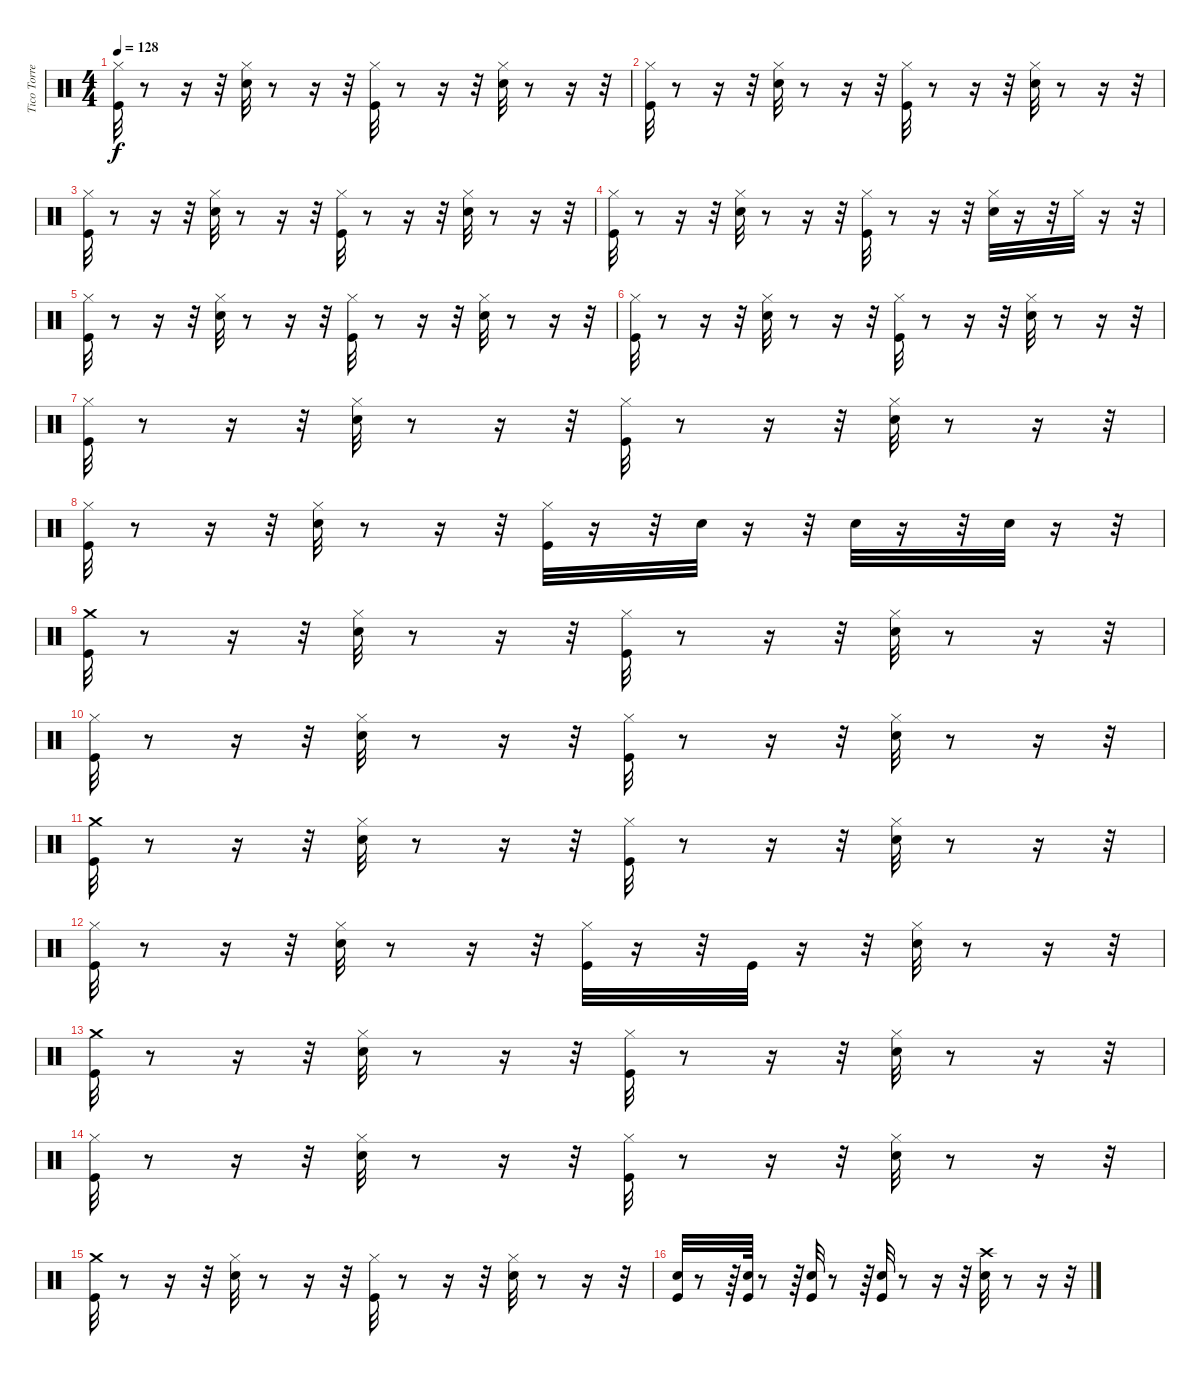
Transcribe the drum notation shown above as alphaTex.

\track ("Tico Torres" "Tico Torre") {instrument percussion}
\staff {score}
\articulation defaults
\ts (4 4)
\tempo 128
\clef neutral
\ks c
("Kick (hit)" "Hi-Hat (closed)").32{dy f} r.8 r.16 r.32 ("Snare (hit) 2" "Hi-Hat (closed)").32 r.8 r.16 r.32 ("Kick (hit)" "Hi-Hat (closed)").32 r.8 r.16 r.32 ("Snare (hit) 2" "Hi-Hat (closed)").32 r.8 r.16 r.32 |
("Kick (hit)" "Hi-Hat (closed)").32 r.8 r.16 r.32 ("Snare (hit) 2" "Hi-Hat (closed)").32 r.8 r.16 r.32 ("Kick (hit)" "Hi-Hat (closed)").32 r.8 r.16 r.32 ("Snare (hit) 2" "Hi-Hat (closed)").32 r.8 r.16 r.32 |
("Kick (hit)" "Hi-Hat (closed)").32 r.8 r.16 r.32 ("Snare (hit) 2" "Hi-Hat (closed)").32 r.8 r.16 r.32 ("Kick (hit)" "Hi-Hat (closed)").32 r.8 r.16 r.32 ("Snare (hit) 2" "Hi-Hat (closed)").32 r.8 r.16 r.32 |
("Kick (hit)" "Hi-Hat (closed)").32 r.8 r.16 r.32 ("Snare (hit) 2" "Hi-Hat (closed)").32 r.8 r.16 r.32 ("Kick (hit)" "Hi-Hat (closed)").32 r.8 r.16 r.32 ("Snare (hit) 2" "Hi-Hat (closed)").32 r.16 r.32 "Hi-Hat (closed)".32 r.16 r.32 |
("Kick (hit)" "Hi-Hat (closed)").32 r.8 r.16 r.32 ("Snare (hit) 2" "Hi-Hat (closed)").32 r.8 r.16 r.32 ("Kick (hit)" "Hi-Hat (closed)").32 r.8 r.16 r.32 ("Snare (hit) 2" "Hi-Hat (closed)").32 r.8 r.16 r.32 |
("Kick (hit)" "Hi-Hat (closed)").32 r.8 r.16 r.32 ("Snare (hit) 2" "Hi-Hat (closed)").32 r.8 r.16 r.32 ("Kick (hit)" "Hi-Hat (closed)").32 r.8 r.16 r.32 ("Snare (hit) 2" "Hi-Hat (closed)").32 r.8 r.16 r.32 |
("Kick (hit)" "Hi-Hat (closed)").32 r.8 r.16 r.32 ("Snare (hit) 2" "Hi-Hat (closed)").32 r.8 r.16 r.32 ("Kick (hit)" "Hi-Hat (closed)").32 r.8 r.16 r.32 ("Snare (hit) 2" "Hi-Hat (closed)").32 r.8 r.16 r.32 |
("Hi-Hat (closed)" "Kick (hit)").32 r.8 r.16 r.32 ("Hi-Hat (closed)" "Snare (hit) 2").32 r.8 r.16 r.32 ("Hi-Hat (closed)" "Kick (hit)").32 r.16 r.32 "Snare (hit) 2".32 r.16 r.32 "Snare (hit) 2".32 r.16 r.32 "Snare (hit) 2".32 r.16 r.32 |
("Kick (hit)" "Crash medium (hit)").32 r.8 r.16 r.32 ("Hi-Hat (closed)" "Snare (hit) 2").32 r.8 r.16 r.32 ("Kick (hit)" "Hi-Hat (closed)").32 r.8 r.16 r.32 ("Snare (hit) 2" "Hi-Hat (closed)").32 r.8 r.16 r.32 |
("Hi-Hat (closed)" "Kick (hit)").32 r.8 r.16 r.32 ("Hi-Hat (closed)" "Snare (hit) 2").32 r.8 r.16 r.32 ("Hi-Hat (closed)" "Kick (hit)").32 r.8 r.16 r.32 ("Hi-Hat (closed)" "Snare (hit) 2").32 r.8 r.16 r.32 |
("Kick (hit)" "Crash medium (hit)").32 r.8 r.16 r.32 ("Hi-Hat (closed)" "Snare (hit) 2").32 r.8 r.16 r.32 ("Kick (hit)" "Hi-Hat (closed)").32 r.8 r.16 r.32 ("Snare (hit) 2" "Hi-Hat (closed)").32 r.8 r.16 r.32 |
("Hi-Hat (closed)" "Kick (hit)").32 r.8 r.16 r.32 ("Hi-Hat (closed)" "Snare (hit) 2").32 r.8 r.16 r.32 ("Hi-Hat (closed)" "Kick (hit)").32 r.16 r.32 "Kick (hit)".32 r.16 r.32 ("Hi-Hat (closed)" "Snare (hit) 2").32 r.8 r.16 r.32 |
("Kick (hit)" "Crash medium (hit)").32 r.8 r.16 r.32 ("Hi-Hat (closed)" "Snare (hit) 2").32 r.8 r.16 r.32 ("Kick (hit)" "Hi-Hat (closed)").32 r.8 r.16 r.32 ("Snare (hit) 2" "Hi-Hat (closed)").32 r.8 r.16 r.32 |
("Hi-Hat (closed)" "Kick (hit)").32 r.8 r.16 r.32 ("Hi-Hat (closed)" "Snare (hit) 2").32 r.8 r.16 r.32 ("Hi-Hat (closed)" "Kick (hit)").32 r.8 r.16 r.32 ("Hi-Hat (closed)" "Snare (hit) 2").32 r.8 r.16 r.32 |
("Kick (hit)" "Crash medium (hit)").32 r.8 r.16 r.32 ("Hi-Hat (closed)" "Snare (hit) 2").32 r.8 r.16 r.32 ("Kick (hit)" "Hi-Hat (closed)").32 r.8 r.16 r.32 ("Snare (hit) 2" "Hi-Hat (closed)").32 r.8 r.16 r.32 |
("Snare (hit) 2" "Kick (hit)").32 r.8 r.64 ("Snare (hit) 2" "Kick (hit)").64 r.8 r.64 ("Snare (hit) 2" "Kick (hit)").32 r.8 r.64 ("Kick (hit)" "Snare (hit) 2").32 r.8 r.16 r.32 ("Crash high (hit)" "Snare (hit) 2").32 r.8 r.16 r.32
